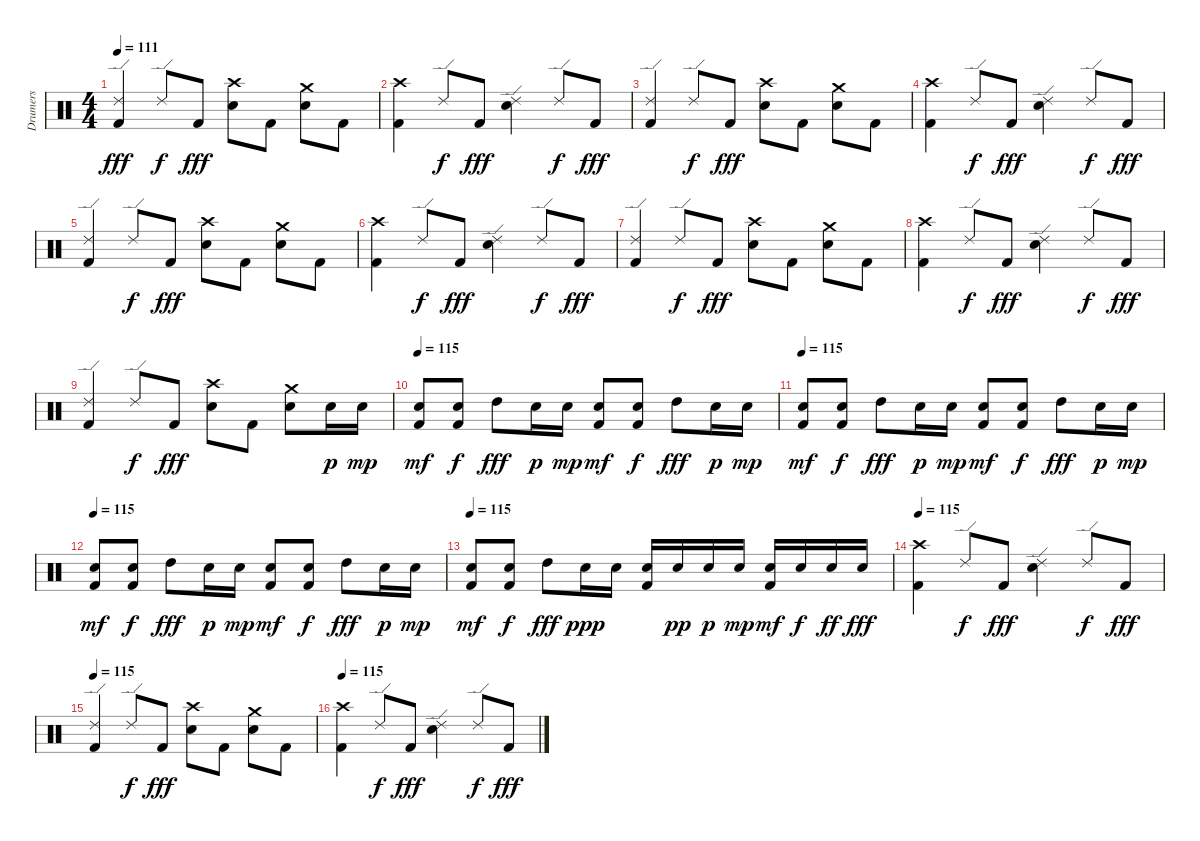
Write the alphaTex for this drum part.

\track ("Drumers" "Drumers") {instrument percussion}
\staff {score}
\articulation defaults
\ts (4 4)
\tempo 111
\clef neutral
\ks c
("Ride (edge) 2" "Kick (hit) 2").4{dy fff} "Ride (edge) 2".8{dy f} "Kick (hit) 2".8{dy fff} ("Crash high (hit)" "Electric Snare (hit)").8 "Kick (hit) 2".8 ("Crash medium (hit)" "Electric Snare (hit)").8 "Kick (hit) 2".8 |
("Crash high (hit)" "Kick (hit) 2").4 "Ride (edge) 2".8{dy f} "Kick (hit) 2".8{dy fff} ("Ride (edge) 2" "Electric Snare (hit)").4 "Ride (edge) 2".8{dy f} "Kick (hit) 2".8{dy fff} |
("Ride (edge) 2" "Kick (hit) 2").4 "Ride (edge) 2".8{dy f} "Kick (hit) 2".8{dy fff} ("Crash high (hit)" "Electric Snare (hit)").8 "Kick (hit) 2".8 ("Crash medium (hit)" "Electric Snare (hit)").8 "Kick (hit) 2".8 |
("Crash high (hit)" "Kick (hit) 2").4 "Ride (edge) 2".8{dy f} "Kick (hit) 2".8{dy fff} ("Ride (edge) 2" "Electric Snare (hit)").4 "Ride (edge) 2".8{dy f} "Kick (hit) 2".8{dy fff} |
("Ride (edge) 2" "Kick (hit) 2").4 "Ride (edge) 2".8{dy f} "Kick (hit) 2".8{dy fff} ("Crash high (hit)" "Electric Snare (hit)").8 "Kick (hit) 2".8 ("Crash medium (hit)" "Electric Snare (hit)").8 "Kick (hit) 2".8 |
("Crash high (hit)" "Kick (hit) 2").4 "Ride (edge) 2".8{dy f} "Kick (hit) 2".8{dy fff} ("Ride (edge) 2" "Electric Snare (hit)").4 "Ride (edge) 2".8{dy f} "Kick (hit) 2".8{dy fff} |
("Ride (edge) 2" "Kick (hit) 2").4 "Ride (edge) 2".8{dy f} "Kick (hit) 2".8{dy fff} ("Crash high (hit)" "Electric Snare (hit)").8 "Kick (hit) 2".8 ("Crash medium (hit)" "Electric Snare (hit)").8 "Kick (hit) 2".8 |
("Crash high (hit)" "Kick (hit) 2").4 "Ride (edge) 2".8{dy f} "Kick (hit) 2".8{dy fff} ("Ride (edge) 2" "Electric Snare (hit)").4 "Ride (edge) 2".8{dy f} "Kick (hit) 2".8{dy fff} |
("Ride (edge) 2" "Kick (hit) 2").4 "Ride (edge) 2".8{dy f} "Kick (hit) 2".8{dy fff} ("Crash high (hit)" "Electric Snare (hit)").8 "Kick (hit) 2".8 ("Crash medium (hit)" "Electric Snare (hit)").8 "Electric Snare (hit)".16{dy p} "Electric Snare (hit)".16{dy mp} |
\tempo 115
("Electric Snare (hit)" "Kick (hit) 2").8{dy mf} ("Electric Snare (hit)" "Kick (hit) 2").8{dy f} "High Tom (hit)".8{dy fff} "Electric Snare (hit)".16{dy p} "Electric Snare (hit)".16{dy mp} ("Electric Snare (hit)" "Kick (hit) 2").8{dy mf} ("Electric Snare (hit)" "Kick (hit) 2").8{dy f} "High Tom (hit)".8{dy fff} "Electric Snare (hit)".16{dy p} "Electric Snare (hit)".16{dy mp} |
\tempo 115
("Electric Snare (hit)" "Kick (hit) 2").8{dy mf} ("Electric Snare (hit)" "Kick (hit) 2").8{dy f} "High Tom (hit)".8{dy fff} "Electric Snare (hit)".16{dy p} "Electric Snare (hit)".16{dy mp} ("Electric Snare (hit)" "Kick (hit) 2").8{dy mf} ("Electric Snare (hit)" "Kick (hit) 2").8{dy f} "High Tom (hit)".8{dy fff} "Electric Snare (hit)".16{dy p} "Electric Snare (hit)".16{dy mp} |
\tempo 115
("Electric Snare (hit)" "Kick (hit) 2").8{dy mf} ("Electric Snare (hit)" "Kick (hit) 2").8{dy f} "High Tom (hit)".8{dy fff} "Electric Snare (hit)".16{dy p} "Electric Snare (hit)".16{dy mp} ("Electric Snare (hit)" "Kick (hit) 2").8{dy mf} ("Electric Snare (hit)" "Kick (hit) 2").8{dy f} "High Tom (hit)".8{dy fff} "Electric Snare (hit)".16{dy p} "Electric Snare (hit)".16{dy mp} |
\tempo 115
("Electric Snare (hit)" "Kick (hit) 2").8{dy mf} ("Electric Snare (hit)" "Kick (hit) 2").8{dy f} "High Tom (hit)".8{dy fff} "Electric Snare (hit)".16{dy ppp} "Electric Snare (hit)".16 ("Electric Snare (hit)" "Kick (hit) 2").16 "Electric Snare (hit)".16{dy pp} "Electric Snare (hit)".16{dy p} "Electric Snare (hit)".16{dy mp} ("Electric Snare (hit)" "Kick (hit) 2").16{dy mf} "Electric Snare (hit)".16{dy f} "Electric Snare (hit)".16{dy ff} "Electric Snare (hit)".16{dy fff} |
\tempo 115
("Crash high (hit)" "Kick (hit) 2").4 "Ride (edge) 2".8{dy f} "Kick (hit) 2".8{dy fff} ("Ride (edge) 2" "Electric Snare (hit)").4 "Ride (edge) 2".8{dy f} "Kick (hit) 2".8{dy fff} |
\tempo 115
("Ride (edge) 2" "Kick (hit) 2").4 "Ride (edge) 2".8{dy f} "Kick (hit) 2".8{dy fff} ("Crash high (hit)" "Electric Snare (hit)").8 "Kick (hit) 2".8 ("Crash medium (hit)" "Electric Snare (hit)").8 "Kick (hit) 2".8 |
\tempo 115
("Crash high (hit)" "Kick (hit) 2").4 "Ride (edge) 2".8{dy f} "Kick (hit) 2".8{dy fff} ("Ride (edge) 2" "Electric Snare (hit)").4 "Ride (edge) 2".8{dy f} "Kick (hit) 2".8{dy fff}
